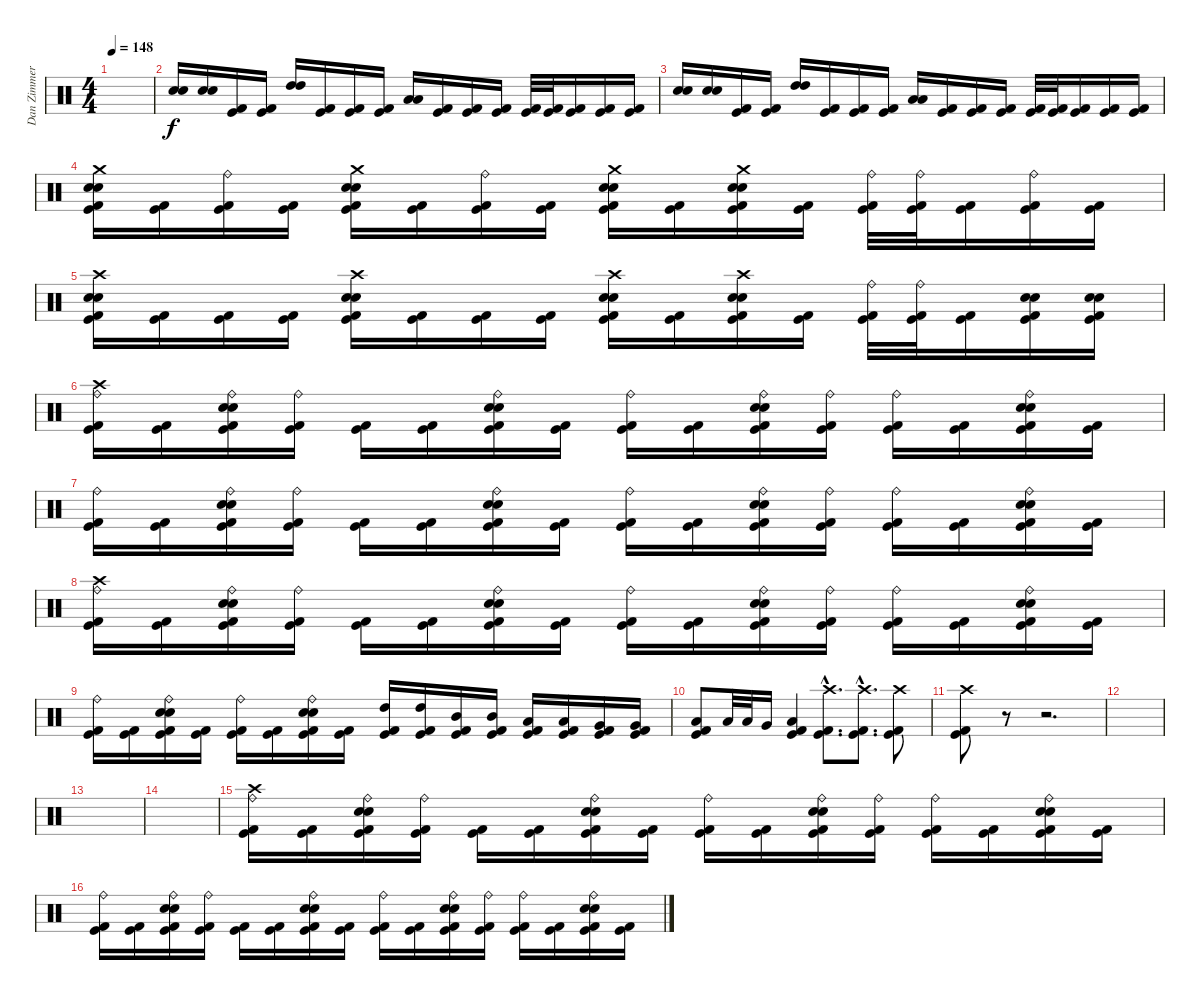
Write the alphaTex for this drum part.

\track ("Dan Zimmerman<Drum>" "Dan Zimmer") {instrument percussion}
\staff {score}
\articulation defaults
\ts (4 4)
\tempo 148
\clef neutral
\ks c
|
("Electric Snare (hit)" "Snare (hit) 2").16 ("Electric Snare (hit)" "Snare (hit) 2").16 ("Kick (hit) 2" "Kick (hit)").16 ("Kick (hit) 2" "Kick (hit)").16 ("High Tom (hit)" "High Tom (hit)").16 ("Kick (hit) 2" "Kick (hit)").16 ("Kick (hit) 2" "Kick (hit)").16 ("Kick (hit) 2" "Kick (hit)").16 ("Low Tom (hit)" "Low Tom (hit)").16 ("Kick (hit) 2" "Kick (hit)").16 ("Kick (hit) 2" "Kick (hit)").16 ("Kick (hit) 2" "Kick (hit)").16 ("Kick (hit) 2" "Kick (hit)").32 ("Kick (hit) 2" "Kick (hit)").32 ("Kick (hit) 2" "Kick (hit)").16 ("Kick (hit) 2" "Kick (hit)").16 ("Kick (hit) 2" "Kick (hit)").16 |
("Electric Snare (hit)" "Snare (hit) 2").16 ("Electric Snare (hit)" "Snare (hit) 2").16 ("Kick (hit) 2" "Kick (hit)").16 ("Kick (hit) 2" "Kick (hit)").16 ("High Tom (hit)" "High Tom (hit)").16 ("Kick (hit) 2" "Kick (hit)").16 ("Kick (hit) 2" "Kick (hit)").16 ("Kick (hit) 2" "Kick (hit)").16 ("Low Tom (hit)" "Low Tom (hit)").16 ("Kick (hit) 2" "Kick (hit)").16 ("Kick (hit) 2" "Kick (hit)").16 ("Kick (hit) 2" "Kick (hit)").16 ("Kick (hit) 2" "Kick (hit)").32 ("Kick (hit) 2" "Kick (hit)").32 ("Kick (hit) 2" "Kick (hit)").16 ("Kick (hit) 2" "Kick (hit)").16 ("Kick (hit) 2" "Kick (hit)").16 |
("Crash medium (hit)" "Electric Snare (hit)" "Snare (hit) 2" "Kick (hit) 2" "Kick (hit)").16 ("Kick (hit)" "Kick (hit) 2").16 ("Ride (bell)" "Kick (hit)" "Kick (hit) 2").16 ("Kick (hit)" "Kick (hit) 2").16 ("Crash medium (hit)" "Electric Snare (hit)" "Snare (hit) 2" "Kick (hit) 2" "Kick (hit)").16 ("Kick (hit)" "Kick (hit) 2").16 ("Ride (bell)" "Kick (hit)" "Kick (hit) 2").16 ("Kick (hit)" "Kick (hit) 2").16 ("Crash medium (hit)" "Electric Snare (hit)" "Snare (hit) 2" "Kick (hit) 2" "Kick (hit)").16 ("Kick (hit)" "Kick (hit) 2").16 ("Crash medium (hit)" "Snare (hit) 2" "Electric Snare (hit)" "Kick (hit)" "Kick (hit) 2").16 ("Kick (hit)" "Kick (hit) 2").16 ("Ride (bell)" "Kick (hit) 2" "Kick (hit)").32 ("Ride (bell)" "Kick (hit)" "Kick (hit) 2").32 ("Kick (hit)" "Kick (hit) 2").16 ("Ride (bell)" "Kick (hit)" "Kick (hit) 2").16 ("Kick (hit)" "Kick (hit) 2").16 |
("Crash high (hit)" "Electric Snare (hit)" "Snare (hit) 2" "Kick (hit) 2" "Kick (hit)").16 ("Kick (hit)" "Kick (hit) 2").16 ("Kick (hit)" "Kick (hit) 2").16 ("Kick (hit)" "Kick (hit) 2").16 ("Crash high (hit)" "Electric Snare (hit)" "Snare (hit) 2" "Kick (hit) 2" "Kick (hit)").16 ("Kick (hit)" "Kick (hit) 2").16 ("Kick (hit)" "Kick (hit) 2").16 ("Kick (hit)" "Kick (hit) 2").16 ("Crash high (hit)" "Electric Snare (hit)" "Snare (hit) 2" "Kick (hit) 2" "Kick (hit)").16 ("Kick (hit)" "Kick (hit) 2").16 ("Crash high (hit)" "Snare (hit) 2" "Electric Snare (hit)" "Kick (hit)" "Kick (hit) 2").16 ("Kick (hit)" "Kick (hit) 2").16 ("Ride (bell)" "Kick (hit) 2" "Kick (hit)").32 ("Ride (bell)" "Kick (hit)" "Kick (hit) 2").32 ("Kick (hit)" "Kick (hit) 2").16 ("Snare (hit) 2" "Electric Snare (hit)" "Kick (hit)" "Kick (hit) 2").16 ("Snare (hit) 2" "Electric Snare (hit)" "Kick (hit)" "Kick (hit) 2").16 |
("Ride (bell)" "Crash high (hit)" "Kick (hit) 2" "Kick (hit)").16 ("Kick (hit) 2" "Kick (hit)").16 ("Ride (bell)" "Snare (hit) 2" "Electric Snare (hit)" "Kick (hit) 2" "Kick (hit)").16 ("Ride (bell)" "Kick (hit) 2" "Kick (hit)").16 ("Kick (hit) 2" "Kick (hit)").16 ("Kick (hit) 2" "Kick (hit)").16 ("Ride (bell)" "Snare (hit) 2" "Electric Snare (hit)" "Kick (hit) 2" "Kick (hit)").16 ("Kick (hit) 2" "Kick (hit)").16 ("Ride (bell)" "Kick (hit) 2" "Kick (hit)").16 ("Kick (hit) 2" "Kick (hit)").16 ("Ride (bell)" "Snare (hit) 2" "Electric Snare (hit)" "Kick (hit) 2" "Kick (hit)").16 ("Ride (bell)" "Kick (hit) 2" "Kick (hit)").16 ("Ride (bell)" "Kick (hit) 2" "Kick (hit)").16 ("Kick (hit) 2" "Kick (hit)").16 ("Ride (bell)" "Snare (hit) 2" "Electric Snare (hit)" "Kick (hit) 2" "Kick (hit)").16 ("Kick (hit) 2" "Kick (hit)").16 |
("Ride (bell)" "Kick (hit) 2" "Kick (hit)").16 ("Kick (hit) 2" "Kick (hit)").16 ("Ride (bell)" "Snare (hit) 2" "Electric Snare (hit)" "Kick (hit) 2" "Kick (hit)").16 ("Ride (bell)" "Kick (hit) 2" "Kick (hit)").16 ("Kick (hit) 2" "Kick (hit)").16 ("Kick (hit) 2" "Kick (hit)").16 ("Ride (bell)" "Snare (hit) 2" "Electric Snare (hit)" "Kick (hit) 2" "Kick (hit)").16 ("Kick (hit) 2" "Kick (hit)").16 ("Ride (bell)" "Kick (hit) 2" "Kick (hit)").16 ("Kick (hit) 2" "Kick (hit)").16 ("Ride (bell)" "Snare (hit) 2" "Electric Snare (hit)" "Kick (hit) 2" "Kick (hit)").16 ("Ride (bell)" "Kick (hit) 2" "Kick (hit)").16 ("Ride (bell)" "Kick (hit) 2" "Kick (hit)").16 ("Kick (hit) 2" "Kick (hit)").16 ("Ride (bell)" "Snare (hit) 2" "Electric Snare (hit)" "Kick (hit) 2" "Kick (hit)").16 ("Kick (hit) 2" "Kick (hit)").16 |
("Ride (bell)" "Crash high (hit)" "Kick (hit) 2" "Kick (hit)").16 ("Kick (hit) 2" "Kick (hit)").16 ("Ride (bell)" "Snare (hit) 2" "Electric Snare (hit)" "Kick (hit) 2" "Kick (hit)").16 ("Ride (bell)" "Kick (hit) 2" "Kick (hit)").16 ("Kick (hit) 2" "Kick (hit)").16 ("Kick (hit) 2" "Kick (hit)").16 ("Ride (bell)" "Snare (hit) 2" "Electric Snare (hit)" "Kick (hit) 2" "Kick (hit)").16 ("Kick (hit) 2" "Kick (hit)").16 ("Ride (bell)" "Kick (hit) 2" "Kick (hit)").16 ("Kick (hit) 2" "Kick (hit)").16 ("Ride (bell)" "Snare (hit) 2" "Electric Snare (hit)" "Kick (hit) 2" "Kick (hit)").16 ("Ride (bell)" "Kick (hit) 2" "Kick (hit)").16 ("Ride (bell)" "Kick (hit) 2" "Kick (hit)").16 ("Kick (hit) 2" "Kick (hit)").16 ("Ride (bell)" "Snare (hit) 2" "Electric Snare (hit)" "Kick (hit) 2" "Kick (hit)").16 ("Kick (hit) 2" "Kick (hit)").16 |
("Ride (bell)" "Kick (hit) 2" "Kick (hit)").16 ("Kick (hit) 2" "Kick (hit)").16 ("Ride (bell)" "Snare (hit) 2" "Electric Snare (hit)" "Kick (hit) 2" "Kick (hit)").16 ("Kick (hit) 2" "Kick (hit)").16 ("Ride (bell)" "Kick (hit) 2" "Kick (hit)").16 ("Kick (hit) 2" "Kick (hit)").16 ("Ride (bell)" "Snare (hit) 2" "Electric Snare (hit)" "Kick (hit) 2" "Kick (hit)").16 ("Kick (hit) 2" "Kick (hit)").16 ("High Tom (hit)" "Kick (hit) 2" "Kick (hit)").16 ("High Tom (hit)" "Kick (hit) 2" "Kick (hit)").16 ("Mid Tom (hit)" "Kick (hit) 2" "Kick (hit)").16 ("Mid Tom (hit)" "Kick (hit) 2" "Kick (hit)").16 ("Low Tom (hit)" "Kick (hit) 2" "Kick (hit)").16 ("Low Tom (hit)" "Kick (hit) 2" "Kick (hit)").16 ("Very Low Tom (hit)" "Kick (hit) 2" "Kick (hit)").16 ("Very Low Tom (hit)" "Kick (hit) 2" "Kick (hit)").16 |
("Low Tom (hit)" "Kick (hit) 2" "Kick (hit)").8 "Low Tom (hit)".32 "Low Tom (hit)".32 "Very Low Tom (hit)".16 ("Low Floor Tom (hit)" "Kick (hit) 2" "Kick (hit)").4 ("Crash high (hit)"{hac} "Kick (hit)"{hac} "Kick (hit) 2"{hac}).8{d} ("Crash high (hit)"{hac} "Kick (hit)"{hac} "Kick (hit) 2"{hac}).8{d} ("Crash high (hit)" "Kick (hit)" "Kick (hit) 2").8 |
("Crash high (hit)" "Kick (hit) 2" "Kick (hit)").8 r.8 r.2{d} |
|
|
|
("Ride (bell)" "Crash high (hit)" "Kick (hit) 2" "Kick (hit)").16 ("Kick (hit) 2" "Kick (hit)").16 ("Ride (bell)" "Snare (hit) 2" "Electric Snare (hit)" "Kick (hit) 2" "Kick (hit)").16 ("Ride (bell)" "Kick (hit) 2" "Kick (hit)").16 ("Kick (hit) 2" "Kick (hit)").16 ("Kick (hit) 2" "Kick (hit)").16 ("Ride (bell)" "Snare (hit) 2" "Electric Snare (hit)" "Kick (hit) 2" "Kick (hit)").16 ("Kick (hit) 2" "Kick (hit)").16 ("Ride (bell)" "Kick (hit) 2" "Kick (hit)").16 ("Kick (hit) 2" "Kick (hit)").16 ("Ride (bell)" "Snare (hit) 2" "Electric Snare (hit)" "Kick (hit) 2" "Kick (hit)").16 ("Ride (bell)" "Kick (hit) 2" "Kick (hit)").16 ("Ride (bell)" "Kick (hit) 2" "Kick (hit)").16 ("Kick (hit) 2" "Kick (hit)").16 ("Ride (bell)" "Snare (hit) 2" "Electric Snare (hit)" "Kick (hit) 2" "Kick (hit)").16 ("Kick (hit) 2" "Kick (hit)").16 |
("Ride (bell)" "Kick (hit) 2" "Kick (hit)").16 ("Kick (hit) 2" "Kick (hit)").16 ("Ride (bell)" "Snare (hit) 2" "Electric Snare (hit)" "Kick (hit) 2" "Kick (hit)").16 ("Ride (bell)" "Kick (hit) 2" "Kick (hit)").16 ("Kick (hit) 2" "Kick (hit)").16 ("Kick (hit) 2" "Kick (hit)").16 ("Ride (bell)" "Snare (hit) 2" "Electric Snare (hit)" "Kick (hit) 2" "Kick (hit)").16 ("Kick (hit) 2" "Kick (hit)").16 ("Ride (bell)" "Kick (hit) 2" "Kick (hit)").16 ("Kick (hit) 2" "Kick (hit)").16 ("Ride (bell)" "Snare (hit) 2" "Electric Snare (hit)" "Kick (hit) 2" "Kick (hit)").16 ("Ride (bell)" "Kick (hit) 2" "Kick (hit)").16 ("Ride (bell)" "Kick (hit) 2" "Kick (hit)").16 ("Kick (hit) 2" "Kick (hit)").16 ("Ride (bell)" "Snare (hit) 2" "Electric Snare (hit)" "Kick (hit) 2" "Kick (hit)").16 ("Kick (hit) 2" "Kick (hit)").16
